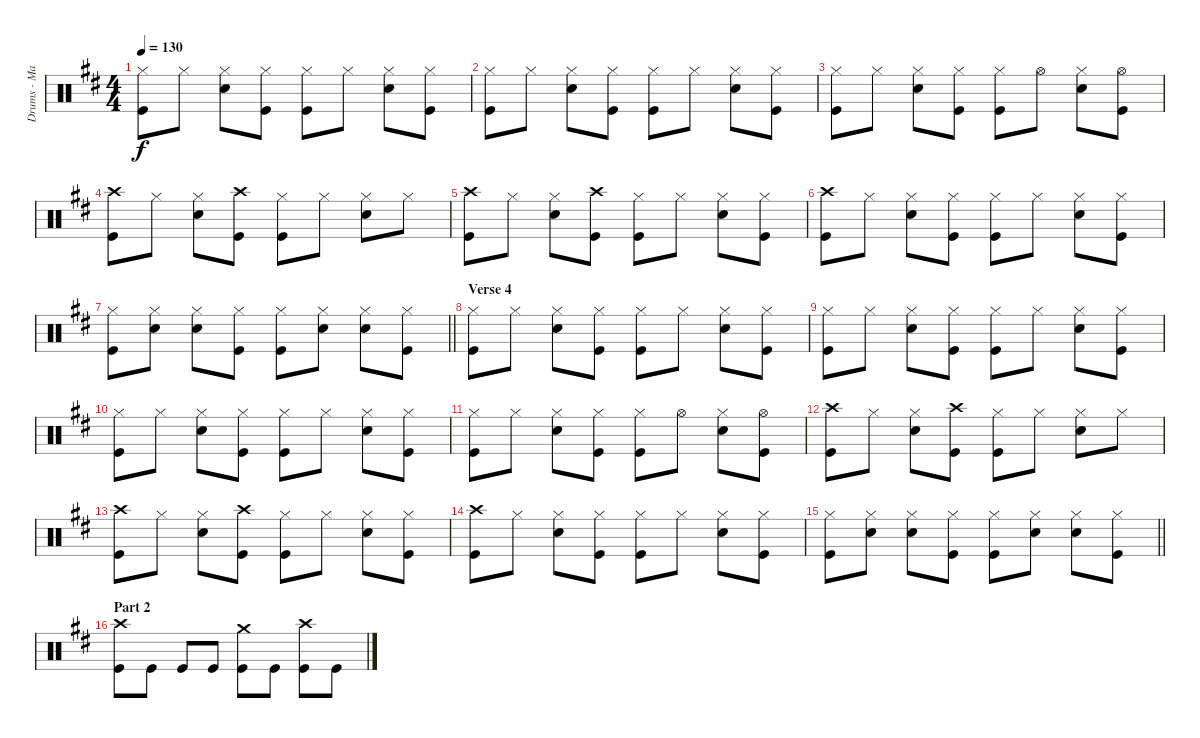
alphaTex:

\track ("Drums - Matt Helders" "Drums - Ma") {instrument percussion}
\staff {score}
\articulation defaults
\ts (4 4)
\tempo 130
\clef neutral
\ks d
("Hi-Hat (closed)" "Kick (hit)").8{dy f} "Hi-Hat (closed)".8 ("Hi-Hat (closed)" "Snare (hit) 2").8 ("Hi-Hat (closed)" "Kick (hit)").8 ("Hi-Hat (closed)" "Kick (hit)").8 "Hi-Hat (closed)".8 ("Hi-Hat (closed)" "Snare (hit) 2").8 ("Hi-Hat (closed)" "Kick (hit)").8 |
("Hi-Hat (closed)" "Kick (hit)").8 "Hi-Hat (closed)".8 ("Hi-Hat (closed)" "Snare (hit) 2").8 ("Hi-Hat (closed)" "Kick (hit)").8 ("Hi-Hat (closed)" "Kick (hit)").8 "Hi-Hat (closed)".8 ("Hi-Hat (closed)" "Snare (hit) 2").8 ("Hi-Hat (closed)" "Kick (hit)").8 |
("Hi-Hat (closed)" "Kick (hit)").8 "Hi-Hat (closed)".8 ("Hi-Hat (closed)" "Snare (hit) 2").8 ("Hi-Hat (closed)" "Kick (hit)").8 ("Hi-Hat (closed)" "Kick (hit)").8 "Hi-Hat (open)".8 ("Hi-Hat (closed)" "Snare (hit) 2").8 ("Hi-Hat (open)" "Kick (hit)").8 |
("Crash high (hit)" "Kick (hit)").8 "Hi-Hat (closed)".8 ("Hi-Hat (closed)" "Snare (hit) 2").8 ("Crash high (hit)" "Kick (hit)").8 ("Hi-Hat (closed)" "Kick (hit)").8 "Hi-Hat (closed)".8 ("Hi-Hat (closed)" "Snare (hit) 2").8 "Hi-Hat (closed)".8 |
("Crash high (hit)" "Kick (hit)").8 "Hi-Hat (closed)".8 ("Hi-Hat (closed)" "Snare (hit) 2").8 ("Crash high (hit)" "Kick (hit)").8 ("Hi-Hat (closed)" "Kick (hit)").8 "Hi-Hat (closed)".8 ("Hi-Hat (closed)" "Snare (hit) 2").8 ("Hi-Hat (closed)" "Kick (hit)").8 |
("Crash high (hit)" "Kick (hit)").8 "Hi-Hat (closed)".8 ("Hi-Hat (closed)" "Snare (hit) 2").8 ("Hi-Hat (closed)" "Kick (hit)").8 ("Hi-Hat (closed)" "Kick (hit)").8 "Hi-Hat (closed)".8 ("Hi-Hat (closed)" "Snare (hit) 2").8 ("Hi-Hat (closed)" "Kick (hit)").8 |
\barLineRight lightlight
("Hi-Hat (closed)" "Kick (hit)").8 ("Hi-Hat (closed)" "Snare (hit) 2").8 ("Hi-Hat (closed)" "Snare (hit) 2").8 ("Hi-Hat (closed)" "Kick (hit)").8 ("Hi-Hat (closed)" "Kick (hit)").8 ("Hi-Hat (closed)" "Snare (hit) 2").8 ("Hi-Hat (closed)" "Snare (hit) 2").8 ("Hi-Hat (closed)" "Kick (hit)").8 |
\section ("" "Verse 4")
("Hi-Hat (closed)" "Kick (hit)").8 "Hi-Hat (closed)".8 ("Hi-Hat (closed)" "Snare (hit) 2").8 ("Hi-Hat (closed)" "Kick (hit)").8 ("Hi-Hat (closed)" "Kick (hit)").8 "Hi-Hat (closed)".8 ("Hi-Hat (closed)" "Snare (hit) 2").8 ("Hi-Hat (closed)" "Kick (hit)").8 |
("Hi-Hat (closed)" "Kick (hit)").8 "Hi-Hat (closed)".8 ("Hi-Hat (closed)" "Snare (hit) 2").8 ("Hi-Hat (closed)" "Kick (hit)").8 ("Hi-Hat (closed)" "Kick (hit)").8 "Hi-Hat (closed)".8 ("Hi-Hat (closed)" "Snare (hit) 2").8 ("Hi-Hat (closed)" "Kick (hit)").8 |
("Hi-Hat (closed)" "Kick (hit)").8 "Hi-Hat (closed)".8 ("Hi-Hat (closed)" "Snare (hit) 2").8 ("Hi-Hat (closed)" "Kick (hit)").8 ("Hi-Hat (closed)" "Kick (hit)").8 "Hi-Hat (closed)".8 ("Hi-Hat (closed)" "Snare (hit) 2").8 ("Hi-Hat (closed)" "Kick (hit)").8 |
("Hi-Hat (closed)" "Kick (hit)").8 "Hi-Hat (closed)".8 ("Hi-Hat (closed)" "Snare (hit) 2").8 ("Hi-Hat (closed)" "Kick (hit)").8 ("Hi-Hat (closed)" "Kick (hit)").8 "Hi-Hat (open)".8 ("Hi-Hat (closed)" "Snare (hit) 2").8 ("Hi-Hat (open)" "Kick (hit)").8 |
("Crash high (hit)" "Kick (hit)").8 "Hi-Hat (closed)".8 ("Hi-Hat (closed)" "Snare (hit) 2").8 ("Crash high (hit)" "Kick (hit)").8 ("Hi-Hat (closed)" "Kick (hit)").8 "Hi-Hat (closed)".8 ("Hi-Hat (closed)" "Snare (hit) 2").8 "Hi-Hat (closed)".8 |
("Crash high (hit)" "Kick (hit)").8 "Hi-Hat (closed)".8 ("Hi-Hat (closed)" "Snare (hit) 2").8 ("Crash high (hit)" "Kick (hit)").8 ("Hi-Hat (closed)" "Kick (hit)").8 "Hi-Hat (closed)".8 ("Hi-Hat (closed)" "Snare (hit) 2").8 ("Hi-Hat (closed)" "Kick (hit)").8 |
("Crash high (hit)" "Kick (hit)").8 "Hi-Hat (closed)".8 ("Hi-Hat (closed)" "Snare (hit) 2").8 ("Hi-Hat (closed)" "Kick (hit)").8 ("Hi-Hat (closed)" "Kick (hit)").8 "Hi-Hat (closed)".8 ("Hi-Hat (closed)" "Snare (hit) 2").8 ("Hi-Hat (closed)" "Kick (hit)").8 |
\barLineRight lightlight
("Hi-Hat (closed)" "Kick (hit)").8 ("Hi-Hat (closed)" "Snare (hit) 2").8 ("Hi-Hat (closed)" "Snare (hit) 2").8 ("Hi-Hat (closed)" "Kick (hit)").8 ("Hi-Hat (closed)" "Kick (hit)").8 ("Hi-Hat (closed)" "Snare (hit) 2").8 ("Hi-Hat (closed)" "Snare (hit) 2").8 ("Hi-Hat (closed)" "Kick (hit)").8 |
\section ("" "Part 2")
("Crash high (hit)" "Kick (hit)").8 "Kick (hit)".8 "Kick (hit)".8 "Kick (hit)".8 ("Crash medium (hit)" "Kick (hit)").8 "Kick (hit)".8 ("Crash high (hit)" "Kick (hit)").8 "Kick (hit)".8
